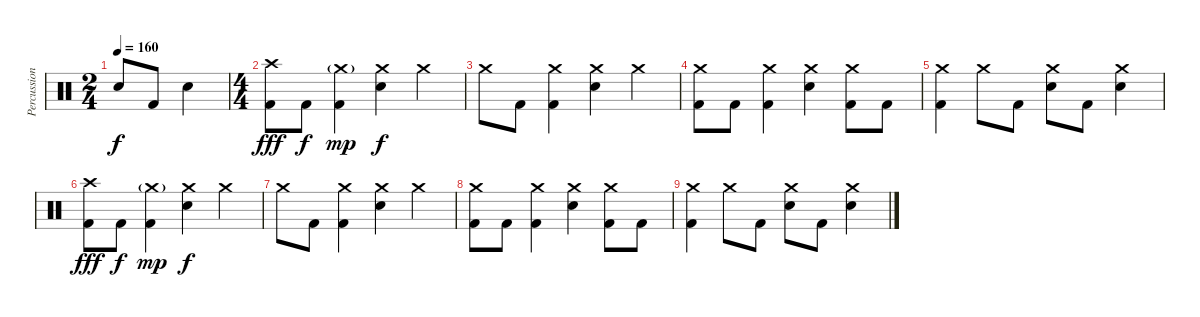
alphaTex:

\track ("Percussion" "Percussion") {instrument percussion}
\staff {score}
\articulation defaults
\ts (2 4)
\tempo 160
\clef neutral
\ks c "Electric Snare (hit)".8{dy f} "Kick (hit) 2".8 "Electric Snare (hit)".4
|
\ts (4 4)
("Crash high (hit)" "Kick (hit) 2").8{dy fff} "Kick (hit) 2".8{dy f} ("Crash medium (hit)"{g} "Kick (hit) 2").4{dy mp} ("Crash medium (hit)" "Electric Snare (hit)").4{dy f} "Crash medium (hit)".4 |
"Crash medium (hit)".8 "Kick (hit) 2".8 ("Crash medium (hit)" "Kick (hit) 2").4 ("Crash medium (hit)" "Electric Snare (hit)").4 "Crash medium (hit)".4 |
("Crash medium (hit)" "Kick (hit) 2").8 "Kick (hit) 2".8 ("Crash medium (hit)" "Kick (hit) 2").4 ("Crash medium (hit)" "Electric Snare (hit)").4 ("Crash medium (hit)" "Kick (hit) 2").8 "Kick (hit) 2".8 |
("Crash medium (hit)" "Kick (hit) 2").4 "Crash medium (hit)".8 "Kick (hit) 2".8 ("Crash medium (hit)" "Electric Snare (hit)").8 "Kick (hit) 2".8 ("Crash medium (hit)" "Electric Snare (hit)").4 |
("Crash high (hit)" "Kick (hit) 2").8{dy fff} "Kick (hit) 2".8{dy f} ("Crash medium (hit)"{g} "Kick (hit) 2").4{dy mp} ("Crash medium (hit)" "Electric Snare (hit)").4{dy f} "Crash medium (hit)".4 |
"Crash medium (hit)".8 "Kick (hit) 2".8 ("Crash medium (hit)" "Kick (hit) 2").4 ("Crash medium (hit)" "Electric Snare (hit)").4 "Crash medium (hit)".4 |
("Crash medium (hit)" "Kick (hit) 2").8 "Kick (hit) 2".8 ("Crash medium (hit)" "Kick (hit) 2").4 ("Crash medium (hit)" "Electric Snare (hit)").4 ("Crash medium (hit)" "Kick (hit) 2").8 "Kick (hit) 2".8 |
("Crash medium (hit)" "Kick (hit) 2").4 "Crash medium (hit)".8 "Kick (hit) 2".8 ("Crash medium (hit)" "Electric Snare (hit)").8 "Kick (hit) 2".8 ("Crash medium (hit)" "Electric Snare (hit)").4
